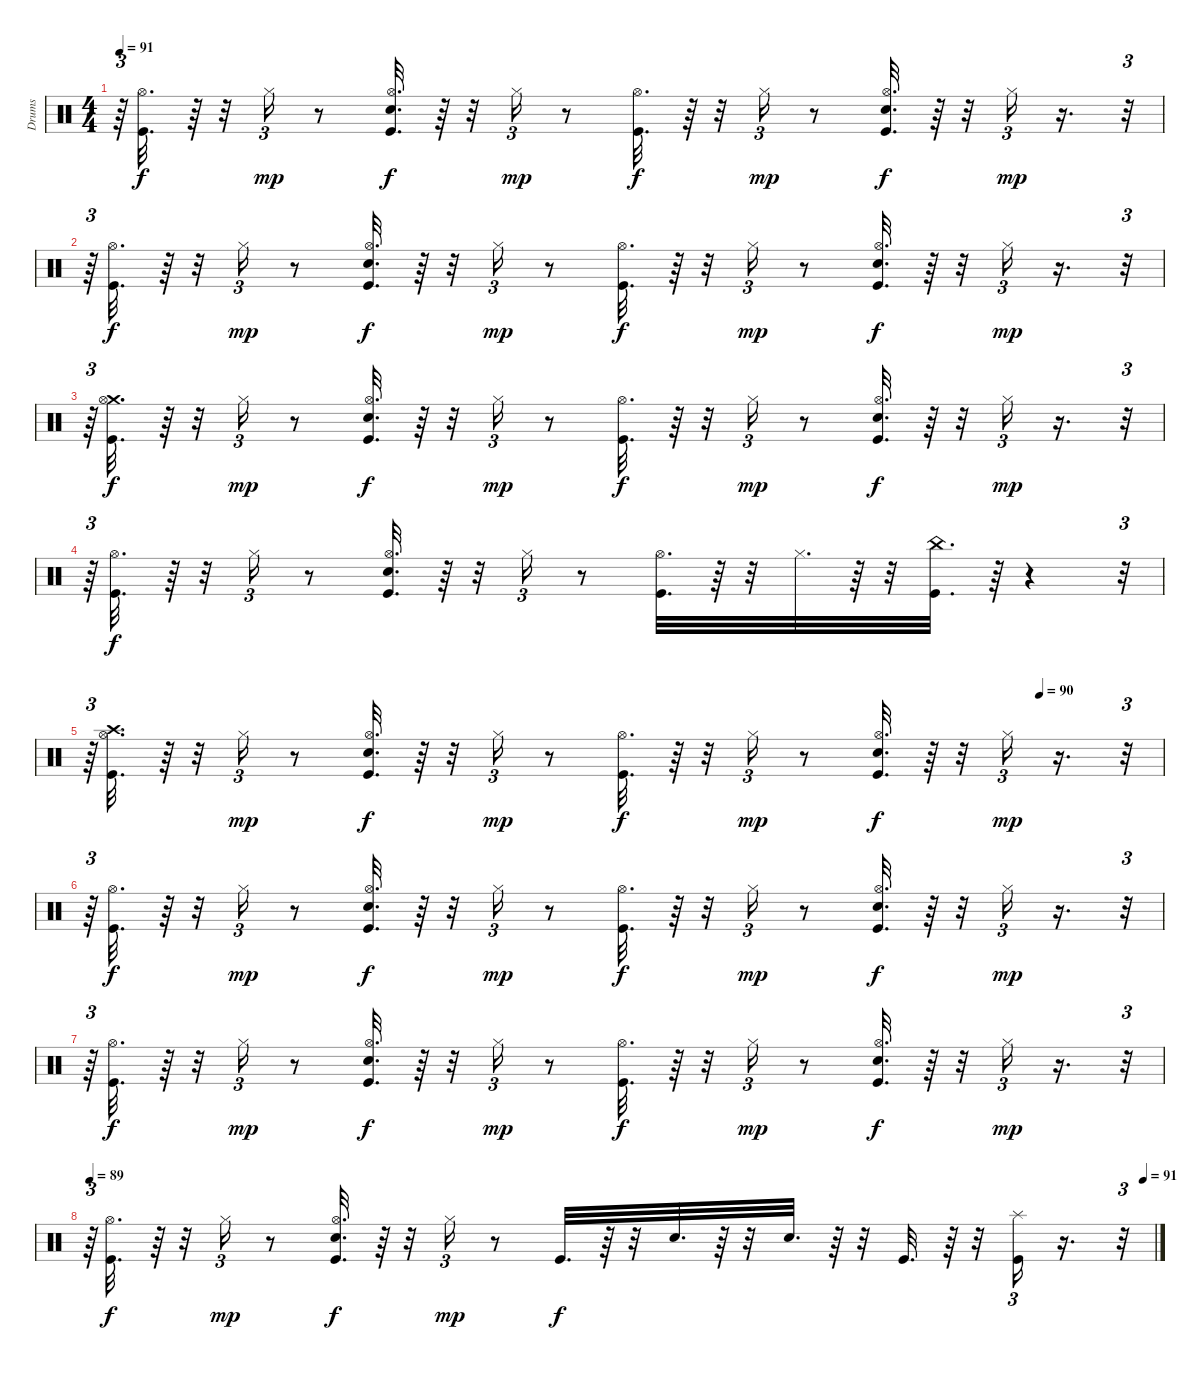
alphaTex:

\track ("Drums" "Drums") {instrument percussion}
\staff {score}
\articulation defaults
\ts (4 4)
\tempo 91
\clef neutral
\ks c
r.64{tu (3 2) dy mp} ("Kick (hit)" "Hi-Hat (open)").32{d dy f} r.64 r.32 "Hi-Hat (closed)".16{tu (3 2) dy mp} r.8 ("Kick (hit)" "Hi-Hat (open)" "Snare (hit) 2").32{d dy f} r.64 r.32 "Hi-Hat (closed)".16{tu (3 2) dy mp} r.8 ("Hi-Hat (open)" "Kick (hit)").32{d dy f} r.64 r.32 "Hi-Hat (closed)".16{tu (3 2) dy mp} r.8 ("Kick (hit)" "Snare (hit) 2" "Hi-Hat (open)").32{d dy f} r.64 r.32 "Hi-Hat (closed)".16{tu (3 2) dy mp} r.16{d} r.32{tu (3 2)} |
r.64{tu (3 2)} ("Kick (hit)" "Hi-Hat (open)").32{d dy f} r.64 r.32 "Hi-Hat (closed)".16{tu (3 2) dy mp} r.8 ("Kick (hit)" "Hi-Hat (open)" "Snare (hit) 2").32{d dy f} r.64 r.32 "Hi-Hat (closed)".16{tu (3 2) dy mp} r.8 ("Hi-Hat (open)" "Kick (hit)").32{d dy f} r.64 r.32 "Hi-Hat (closed)".16{tu (3 2) dy mp} r.8 ("Kick (hit)" "Snare (hit) 2" "Hi-Hat (open)").32{d dy f} r.64 r.32 "Hi-Hat (closed)".16{tu (3 2) dy mp} r.16{d} r.32{tu (3 2)} |
r.64{tu (3 2)} ("Crash medium (hit)" "Kick (hit)" "Hi-Hat (open)").32{d dy f} r.64 r.32 "Hi-Hat (closed)".16{tu (3 2) dy mp} r.8 ("Kick (hit)" "Hi-Hat (open)" "Snare (hit) 2").32{d dy f} r.64 r.32 "Hi-Hat (closed)".16{tu (3 2) dy mp} r.8 ("Hi-Hat (open)" "Kick (hit)").32{d dy f} r.64 r.32 "Hi-Hat (closed)".16{tu (3 2) dy mp} r.8 ("Kick (hit)" "Snare (hit) 2" "Hi-Hat (open)").32{d dy f} r.64 r.32 "Hi-Hat (closed)".16{tu (3 2) dy mp} r.16{d} r.32{tu (3 2)} |
r.64{tu (3 2)} ("Hi-Hat (open)" "Kick (hit)").32{d dy f} r.64 r.32 "Hi-Hat (closed)".16{tu (3 2)} r.8 ("Kick (hit)" "Hi-Hat (open)" "Snare (hit) 2").32{d} r.64 r.32 "Hi-Hat (closed)".16{tu (3 2)} r.8 ("Hi-Hat (open)" "Kick (hit)").32{d} r.64 r.32 "Hi-Hat (closed)".32{d} r.64 r.32 ("Kick (hit)" "China (hit)").32{d} r.64 r.4 r.32{tu (3 2)} |
\tempo (90 0.8854166666666666)
r.64{tu (3 2)} ("Crash high (hit)" "Kick (hit)" "Hi-Hat (open)").32{d} r.64 r.32 "Hi-Hat (closed)".16{tu (3 2) dy mp} r.8 ("Kick (hit)" "Hi-Hat (open)" "Snare (hit) 2").32{d dy f} r.64 r.32 "Hi-Hat (closed)".16{tu (3 2) dy mp} r.8 ("Hi-Hat (open)" "Kick (hit)").32{d dy f} r.64 r.32 "Hi-Hat (closed)".16{tu (3 2) dy mp} r.8 ("Kick (hit)" "Snare (hit) 2" "Hi-Hat (open)").32{d dy f} r.64 r.32 "Hi-Hat (closed)".16{tu (3 2) dy mp} r.16{d} r.32{tu (3 2)} |
r.64{tu (3 2)} ("Kick (hit)" "Hi-Hat (open)").32{d dy f} r.64 r.32 "Hi-Hat (closed)".16{tu (3 2) dy mp} r.8 ("Kick (hit)" "Hi-Hat (open)" "Snare (hit) 2").32{d dy f} r.64 r.32 "Hi-Hat (closed)".16{tu (3 2) dy mp} r.8 ("Hi-Hat (open)" "Kick (hit)").32{d dy f} r.64 r.32 "Hi-Hat (closed)".16{tu (3 2) dy mp} r.8 ("Kick (hit)" "Snare (hit) 2" "Hi-Hat (open)").32{d dy f} r.64 r.32 "Hi-Hat (closed)".16{tu (3 2) dy mp} r.16{d} r.32{tu (3 2)} |
r.64{tu (3 2)} ("Kick (hit)" "Hi-Hat (open)").32{d dy f} r.64 r.32 "Hi-Hat (closed)".16{tu (3 2) dy mp} r.8 ("Kick (hit)" "Hi-Hat (open)" "Snare (hit) 2").32{d dy f} r.64 r.32 "Hi-Hat (closed)".16{tu (3 2) dy mp} r.8 ("Hi-Hat (open)" "Kick (hit)").32{d dy f} r.64 r.32 "Hi-Hat (closed)".16{tu (3 2) dy mp} r.8 ("Kick (hit)" "Snare (hit) 2" "Hi-Hat (open)").32{d dy f} r.64 r.32 "Hi-Hat (closed)".16{tu (3 2) dy mp} r.16{d} r.32{tu (3 2)} |
\tempo 89
\tempo (91 0.9895833333333334)
r.64{tu (3 2)} ("Kick (hit)" "Hi-Hat (open)").32{d dy f} r.64 r.32 "Hi-Hat (closed)".16{tu (3 2) dy mp} r.8 ("Kick (hit)" "Hi-Hat (open)" "Snare (hit) 2").32{d dy f} r.64 r.32 "Hi-Hat (closed)".16{tu (3 2) dy mp} r.8 "Kick (hit)".32{d dy f} r.64 r.32 "Snare (hit) 2".32{d} r.64 r.32 "Snare (hit) 2".32{d} r.64 r.32 "Kick (hit)".32{d} r.64 r.32 ("Splash (hit)" "Kick (hit)").16{tu (3 2)} r.16{d} r.32{tu (3 2)}
